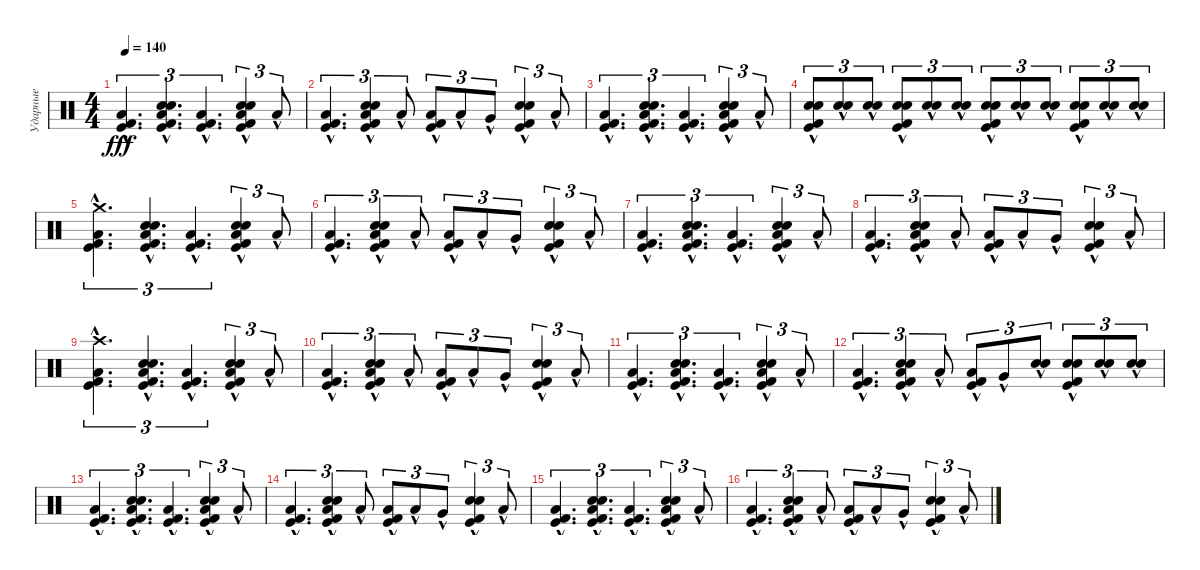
\track ("Ударные" "Ударные") {instrument percussion}
\staff {score}
\articulation defaults
\ts (4 4)
\tempo 140
\clef neutral
\ks c
("Kick (hit)" "Kick (hit) 2" "Low Floor Tom (hit)"{hac}).4{d tu (3 2) dy fff} ("Kick (hit)" "Kick (hit) 2" "Snare (hit) 2"{hac} "Electric Snare (hit)"{hac} "Low Floor Tom (hit)"{hac}).4{d tu (3 2)} ("Kick (hit)" "Kick (hit) 2" "Low Floor Tom (hit)"{hac}).4{d tu (3 2)} ("Kick (hit)" "Kick (hit) 2" "Snare (hit) 2"{hac} "Electric Snare (hit)"{hac} "Low Floor Tom (hit)"{hac}).4{tu (3 2)} "Low Floor Tom (hit)"{hac}.8{tu (3 2)} |
("Kick (hit)" "Kick (hit) 2" "Low Floor Tom (hit)"{hac}).4{d tu (3 2)} ("Kick (hit)" "Kick (hit) 2" "Snare (hit) 2"{hac} "Electric Snare (hit)"{hac} "Low Floor Tom (hit)"{hac}).4{tu (3 2)} "Low Floor Tom (hit)"{hac}.8{tu (3 2)} ("Kick (hit)" "Kick (hit) 2" "Low Floor Tom (hit)"{hac}).8{tu (3 2)} "Low Tom (hit)"{hac}.8{tu (3 2)} "Very Low Tom (hit)"{hac}.8{tu (3 2)} ("Kick (hit)" "Kick (hit) 2" "Snare (hit) 2"{hac} "Electric Snare (hit)"{hac}).4{tu (3 2)} "Low Floor Tom (hit)"{hac}.8{tu (3 2)} |
("Kick (hit)" "Kick (hit) 2" "Low Floor Tom (hit)"{hac}).4{d tu (3 2)} ("Kick (hit)" "Kick (hit) 2" "Snare (hit) 2"{hac} "Electric Snare (hit)"{hac} "Low Floor Tom (hit)"{hac}).4{d tu (3 2)} ("Kick (hit)" "Kick (hit) 2" "Low Floor Tom (hit)"{hac}).4{d tu (3 2)} ("Kick (hit)" "Kick (hit) 2" "Snare (hit) 2"{hac} "Electric Snare (hit)"{hac} "Low Floor Tom (hit)"{hac}).4{tu (3 2)} "Low Floor Tom (hit)"{hac}.8{tu (3 2)} |
("Kick (hit)" "Kick (hit) 2" "Snare (hit) 2"{hac} "Electric Snare (hit)"{hac}).8{tu (3 2)} ("Snare (hit) 2"{hac} "Electric Snare (hit)"{hac}).8{tu (3 2)} ("Snare (hit) 2"{hac} "Electric Snare (hit)"{hac}).8{tu (3 2)} ("Kick (hit)" "Kick (hit) 2" "Snare (hit) 2"{hac} "Electric Snare (hit)"{hac}).8{tu (3 2)} ("Snare (hit) 2"{hac} "Electric Snare (hit)"{hac}).8{tu (3 2)} ("Snare (hit) 2"{hac} "Electric Snare (hit)"{hac}).8{tu (3 2)} ("Kick (hit)" "Kick (hit) 2" "Snare (hit) 2"{hac} "Electric Snare (hit)"{hac}).8{tu (3 2)} ("Snare (hit) 2"{hac} "Electric Snare (hit)"{hac}).8{tu (3 2)} ("Snare (hit) 2"{hac} "Electric Snare (hit)"{hac}).8{tu (3 2)} ("Kick (hit)" "Kick (hit) 2" "Snare (hit) 2"{hac} "Electric Snare (hit)"{hac}).8{tu (3 2)} ("Snare (hit) 2"{hac} "Electric Snare (hit)"{hac}).8{tu (3 2)} ("Snare (hit) 2"{hac} "Electric Snare (hit)"{hac}).8{tu (3 2)} |
("Crash medium (hit)" "Kick (hit)" "Kick (hit) 2" "Low Floor Tom (hit)"{hac}).4{d tu (3 2)} ("Kick (hit)" "Kick (hit) 2" "Snare (hit) 2"{hac} "Electric Snare (hit)"{hac} "Low Floor Tom (hit)"{hac}).4{d tu (3 2)} ("Kick (hit)" "Kick (hit) 2" "Low Floor Tom (hit)"{hac}).4{d tu (3 2)} ("Kick (hit)" "Kick (hit) 2" "Snare (hit) 2"{hac} "Electric Snare (hit)"{hac} "Low Floor Tom (hit)"{hac}).4{tu (3 2)} "Low Floor Tom (hit)"{hac}.8{tu (3 2)} |
("Kick (hit)" "Kick (hit) 2" "Low Floor Tom (hit)"{hac}).4{d tu (3 2)} ("Kick (hit)" "Kick (hit) 2" "Snare (hit) 2"{hac} "Electric Snare (hit)"{hac} "Low Floor Tom (hit)"{hac}).4{tu (3 2)} "Low Floor Tom (hit)"{hac}.8{tu (3 2)} ("Kick (hit)" "Kick (hit) 2" "Low Floor Tom (hit)"{hac}).8{tu (3 2)} "Low Tom (hit)"{hac}.8{tu (3 2)} "Very Low Tom (hit)"{hac}.8{tu (3 2)} ("Kick (hit)" "Kick (hit) 2" "Snare (hit) 2"{hac} "Electric Snare (hit)"{hac}).4{tu (3 2)} "Low Floor Tom (hit)"{hac}.8{tu (3 2)} |
("Kick (hit)" "Kick (hit) 2" "Low Floor Tom (hit)"{hac}).4{d tu (3 2)} ("Kick (hit)" "Kick (hit) 2" "Snare (hit) 2"{hac} "Electric Snare (hit)"{hac} "Low Floor Tom (hit)"{hac}).4{d tu (3 2)} ("Kick (hit)" "Kick (hit) 2" "Low Floor Tom (hit)"{hac}).4{d tu (3 2)} ("Kick (hit)" "Kick (hit) 2" "Snare (hit) 2"{hac} "Electric Snare (hit)"{hac} "Low Floor Tom (hit)"{hac}).4{tu (3 2)} "Low Floor Tom (hit)"{hac}.8{tu (3 2)} |
("Kick (hit)" "Kick (hit) 2" "Low Floor Tom (hit)"{hac}).4{d tu (3 2)} ("Kick (hit)" "Kick (hit) 2" "Snare (hit) 2"{hac} "Electric Snare (hit)"{hac} "Low Floor Tom (hit)"{hac}).4{tu (3 2)} "Low Floor Tom (hit)"{hac}.8{tu (3 2)} ("Kick (hit)" "Kick (hit) 2" "Low Floor Tom (hit)"{hac}).8{tu (3 2)} "Low Tom (hit)"{hac}.8{tu (3 2)} "Very Low Tom (hit)"{hac}.8{tu (3 2)} ("Kick (hit)" "Kick (hit) 2" "Snare (hit) 2"{hac} "Electric Snare (hit)"{hac}).4{tu (3 2)} "Low Floor Tom (hit)"{hac}.8{tu (3 2)} |
("Crash high (hit)" "Kick (hit)" "Kick (hit) 2" "Low Floor Tom (hit)"{hac}).4{d tu (3 2)} ("Kick (hit)" "Kick (hit) 2" "Snare (hit) 2"{hac} "Electric Snare (hit)"{hac} "Low Floor Tom (hit)"{hac}).4{d tu (3 2)} ("Kick (hit)" "Kick (hit) 2" "Low Floor Tom (hit)"{hac}).4{d tu (3 2)} ("Kick (hit)" "Kick (hit) 2" "Snare (hit) 2"{hac} "Electric Snare (hit)"{hac} "Low Floor Tom (hit)"{hac}).4{tu (3 2)} "Low Floor Tom (hit)"{hac}.8{tu (3 2)} |
("Kick (hit)" "Kick (hit) 2" "Low Floor Tom (hit)"{hac}).4{d tu (3 2)} ("Kick (hit)" "Kick (hit) 2" "Snare (hit) 2"{hac} "Electric Snare (hit)"{hac} "Low Floor Tom (hit)"{hac}).4{tu (3 2)} "Low Floor Tom (hit)"{hac}.8{tu (3 2)} ("Kick (hit)" "Kick (hit) 2" "Low Floor Tom (hit)"{hac}).8{tu (3 2)} "Low Tom (hit)"{hac}.8{tu (3 2)} "Very Low Tom (hit)"{hac}.8{tu (3 2)} ("Kick (hit)" "Kick (hit) 2" "Snare (hit) 2"{hac} "Electric Snare (hit)"{hac}).4{tu (3 2)} "Low Floor Tom (hit)"{hac}.8{tu (3 2)} |
("Kick (hit)" "Kick (hit) 2" "Low Floor Tom (hit)"{hac}).4{d tu (3 2)} ("Kick (hit)" "Kick (hit) 2" "Snare (hit) 2"{hac} "Electric Snare (hit)"{hac} "Low Floor Tom (hit)"{hac}).4{d tu (3 2)} ("Kick (hit)" "Kick (hit) 2" "Low Floor Tom (hit)"{hac}).4{d tu (3 2)} ("Kick (hit)" "Kick (hit) 2" "Snare (hit) 2"{hac} "Electric Snare (hit)"{hac} "Low Floor Tom (hit)"{hac}).4{tu (3 2)} "Low Floor Tom (hit)"{hac}.8{tu (3 2)} |
("Kick (hit)" "Kick (hit) 2" "Low Floor Tom (hit)"{hac}).4{d tu (3 2)} ("Kick (hit)" "Kick (hit) 2" "Snare (hit) 2"{hac} "Electric Snare (hit)"{hac} "Low Floor Tom (hit)"{hac}).4{tu (3 2)} "Low Floor Tom (hit)"{hac}.8{tu (3 2)} ("Kick (hit)" "Kick (hit) 2" "Low Tom (hit)"{hac}).8{tu (3 2)} "Very Low Tom (hit)"{hac}.8{tu (3 2)} ("Snare (hit) 2"{hac} "Electric Snare (hit)"{hac}).8{tu (3 2)} ("Kick (hit)" "Kick (hit) 2" "Snare (hit) 2"{hac} "Electric Snare (hit)"{hac}).8{tu (3 2)} ("Snare (hit) 2"{hac} "Electric Snare (hit)"{hac}).8{tu (3 2)} ("Snare (hit) 2"{hac} "Electric Snare (hit)"{hac}).8{tu (3 2)} |
("Kick (hit)" "Kick (hit) 2" "Low Floor Tom (hit)"{hac}).4{d tu (3 2)} ("Kick (hit)" "Kick (hit) 2" "Snare (hit) 2"{hac} "Electric Snare (hit)"{hac} "Low Floor Tom (hit)"{hac}).4{d tu (3 2)} ("Kick (hit)" "Kick (hit) 2" "Low Floor Tom (hit)"{hac}).4{d tu (3 2)} ("Kick (hit)" "Kick (hit) 2" "Snare (hit) 2"{hac} "Electric Snare (hit)"{hac} "Low Floor Tom (hit)"{hac}).4{tu (3 2)} "Low Floor Tom (hit)"{hac}.8{tu (3 2)} |
("Kick (hit)" "Kick (hit) 2" "Low Floor Tom (hit)"{hac}).4{d tu (3 2)} ("Kick (hit)" "Kick (hit) 2" "Snare (hit) 2"{hac} "Electric Snare (hit)"{hac} "Low Floor Tom (hit)"{hac}).4{tu (3 2)} "Low Floor Tom (hit)"{hac}.8{tu (3 2)} ("Kick (hit)" "Kick (hit) 2" "Low Floor Tom (hit)"{hac}).8{tu (3 2)} "Low Tom (hit)"{hac}.8{tu (3 2)} "Very Low Tom (hit)"{hac}.8{tu (3 2)} ("Kick (hit)" "Kick (hit) 2" "Snare (hit) 2"{hac} "Electric Snare (hit)"{hac}).4{tu (3 2)} "Low Floor Tom (hit)"{hac}.8{tu (3 2)} |
("Kick (hit)" "Kick (hit) 2" "Low Floor Tom (hit)"{hac}).4{d tu (3 2)} ("Kick (hit)" "Kick (hit) 2" "Snare (hit) 2"{hac} "Electric Snare (hit)"{hac} "Low Floor Tom (hit)"{hac}).4{d tu (3 2)} ("Kick (hit)" "Kick (hit) 2" "Low Floor Tom (hit)"{hac}).4{d tu (3 2)} ("Kick (hit)" "Kick (hit) 2" "Snare (hit) 2"{hac} "Electric Snare (hit)"{hac} "Low Floor Tom (hit)"{hac}).4{tu (3 2)} "Low Floor Tom (hit)"{hac}.8{tu (3 2)} |
("Kick (hit)" "Kick (hit) 2" "Low Floor Tom (hit)"{hac}).4{d tu (3 2)} ("Kick (hit)" "Kick (hit) 2" "Snare (hit) 2"{hac} "Electric Snare (hit)"{hac} "Low Floor Tom (hit)"{hac}).4{tu (3 2)} "Low Floor Tom (hit)"{hac}.8{tu (3 2)} ("Kick (hit)" "Kick (hit) 2" "Low Floor Tom (hit)"{hac}).8{tu (3 2)} "Low Tom (hit)"{hac}.8{tu (3 2)} "Very Low Tom (hit)"{hac}.8{tu (3 2)} ("Kick (hit)" "Kick (hit) 2" "Snare (hit) 2"{hac} "Electric Snare (hit)"{hac}).4{tu (3 2)} "Low Floor Tom (hit)"{hac}.8{tu (3 2)}
